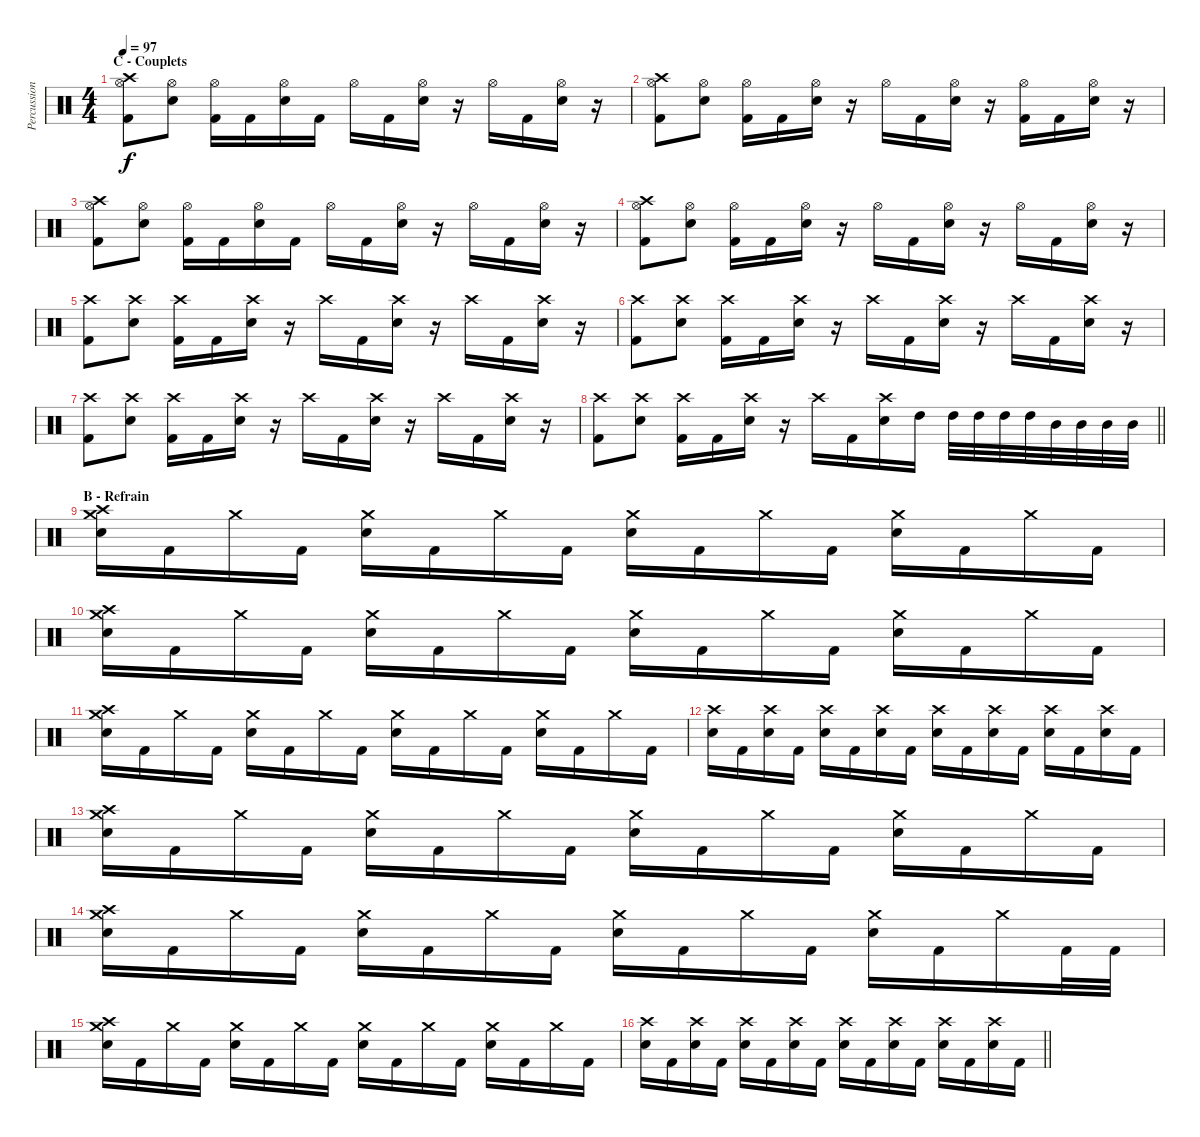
\track ("Percussions" "Percussion") {instrument percussion}
\staff {score}
\articulation defaults
\ts (4 4)
\section ("" "C - Couplets")
\tempo 97
\clef neutral
\ks c
("Crash high (hit)" "Hi-Hat (open)" "Kick (hit) 2").8{dy f} ("Hi-Hat (open)" "Snare (hit) 2").8 ("Hi-Hat (open)" "Kick (hit) 2").16 "Kick (hit) 2".16 ("Hi-Hat (open)" "Snare (hit) 2").16 "Kick (hit) 2".16 "Hi-Hat (open)".16 "Kick (hit) 2".16 ("Hi-Hat (open)" "Snare (hit) 2").16 r.16 "Hi-Hat (open)".16 "Kick (hit) 2".16 ("Hi-Hat (open)" "Snare (hit) 2").16 r.16 |
("Crash high (hit)" "Hi-Hat (open)" "Kick (hit) 2").8 ("Hi-Hat (open)" "Snare (hit) 2").8 ("Hi-Hat (open)" "Kick (hit) 2").16 "Kick (hit) 2".16 ("Hi-Hat (open)" "Snare (hit) 2").16 r.16 "Hi-Hat (open)".16 "Kick (hit) 2".16 ("Hi-Hat (open)" "Snare (hit) 2").16 r.16 ("Hi-Hat (open)" "Kick (hit) 2").16 "Kick (hit) 2".16 ("Hi-Hat (open)" "Snare (hit) 2").16 r.16 |
("Crash high (hit)" "Hi-Hat (open)" "Kick (hit) 2").8 ("Hi-Hat (open)" "Snare (hit) 2").8 ("Hi-Hat (open)" "Kick (hit) 2").16 "Kick (hit) 2".16 ("Hi-Hat (open)" "Snare (hit) 2").16 "Kick (hit) 2".16 "Hi-Hat (open)".16 "Kick (hit) 2".16 ("Hi-Hat (open)" "Snare (hit) 2").16 r.16 "Hi-Hat (open)".16 "Kick (hit) 2".16 ("Hi-Hat (open)" "Snare (hit) 2").16 r.16 |
("Crash high (hit)" "Hi-Hat (open)" "Kick (hit) 2").8 ("Hi-Hat (open)" "Snare (hit) 2").8 ("Hi-Hat (open)" "Kick (hit) 2").16 "Kick (hit) 2".16 ("Hi-Hat (open)" "Snare (hit) 2").16 r.16 "Hi-Hat (open)".16 "Kick (hit) 2".16 ("Hi-Hat (open)" "Snare (hit) 2").16 r.16 "Hi-Hat (open)".16 "Kick (hit) 2".16 ("Hi-Hat (open)" "Snare (hit) 2").16 r.16 |
("Crash high (hit)" "Kick (hit) 2").8 ("Crash high (hit)" "Snare (hit) 2").8 ("Crash high (hit)" "Kick (hit) 2").16 "Kick (hit) 2".16 ("Crash high (hit)" "Snare (hit) 2").16 r.16 "Crash high (hit)".16 "Kick (hit) 2".16 ("Crash high (hit)" "Snare (hit) 2").16 r.16 "Crash high (hit)".16 "Kick (hit) 2".16 ("Crash high (hit)" "Snare (hit) 2").16 r.16 |
("Crash high (hit)" "Kick (hit) 2").8 ("Crash high (hit)" "Snare (hit) 2").8 ("Crash high (hit)" "Kick (hit) 2").16 "Kick (hit) 2".16 ("Crash high (hit)" "Snare (hit) 2").16 r.16 "Crash high (hit)".16 "Kick (hit) 2".16 ("Crash high (hit)" "Snare (hit) 2").16 r.16 "Crash high (hit)".16 "Kick (hit) 2".16 ("Crash high (hit)" "Snare (hit) 2").16 r.16 |
("Crash high (hit)" "Kick (hit) 2").8 ("Crash high (hit)" "Snare (hit) 2").8 ("Crash high (hit)" "Kick (hit) 2").16 "Kick (hit) 2".16 ("Crash high (hit)" "Snare (hit) 2").16 r.16 "Crash high (hit)".16 "Kick (hit) 2".16 ("Crash high (hit)" "Snare (hit) 2").16 r.16 "Crash high (hit)".16 "Kick (hit) 2".16 ("Crash high (hit)" "Snare (hit) 2").16 r.16 |
\barLineRight lightlight
("Crash high (hit)" "Kick (hit) 2").8 ("Crash high (hit)" "Snare (hit) 2").8 ("Crash high (hit)" "Kick (hit) 2").16 "Kick (hit) 2".16 ("Crash high (hit)" "Snare (hit) 2").16 r.16 "Crash high (hit)".16 "Kick (hit) 2".16 ("Crash high (hit)" "Snare (hit) 2").16 "High Tom (hit)".16 "High Tom (hit)".32 "High Tom (hit)".32 "High Tom (hit)".32 "High Tom (hit)".32 "Mid Tom (hit)".32 "Mid Tom (hit)".32 "Mid Tom (hit)".32 "Mid Tom (hit)".32 |
\section ("" "B - Refrain")
("Crash medium (hit)" "Crash high (hit)" "Snare (hit) 2").16 "Kick (hit) 2".16 "Crash medium (hit)".16 "Kick (hit) 2".16 ("Crash medium (hit)" "Snare (hit) 2").16 "Kick (hit) 2".16 "Crash medium (hit)".16 "Kick (hit) 2".16 ("Crash medium (hit)" "Snare (hit) 2").16 "Kick (hit) 2".16 "Crash medium (hit)".16 "Kick (hit) 2".16 ("Crash medium (hit)" "Snare (hit) 2").16 "Kick (hit) 2".16 "Crash medium (hit)".16 "Kick (hit) 2".16 |
("Crash medium (hit)" "Crash high (hit)" "Snare (hit) 2").16 "Kick (hit) 2".16 "Crash medium (hit)".16 "Kick (hit) 2".16 ("Crash medium (hit)" "Snare (hit) 2").16 "Kick (hit) 2".16 "Crash medium (hit)".16 "Kick (hit) 2".16 ("Crash medium (hit)" "Snare (hit) 2").16 "Kick (hit) 2".16 "Crash medium (hit)".16 "Kick (hit) 2".16 ("Crash medium (hit)" "Snare (hit) 2").16 "Kick (hit) 2".16 "Crash medium (hit)".16 "Kick (hit) 2".16 |
("Crash medium (hit)" "Crash high (hit)" "Snare (hit) 2").16 "Kick (hit) 2".16 "Crash medium (hit)".16 "Kick (hit) 2".16 ("Crash medium (hit)" "Snare (hit) 2").16 "Kick (hit) 2".16 "Crash medium (hit)".16 "Kick (hit) 2".16 ("Crash medium (hit)" "Snare (hit) 2").16 "Kick (hit) 2".16 "Crash medium (hit)".16 "Kick (hit) 2".16 ("Crash medium (hit)" "Snare (hit) 2").16 "Kick (hit) 2".16 "Crash medium (hit)".16 "Kick (hit) 2".16 |
("Crash high (hit)" "Snare (hit) 2").16 "Kick (hit) 2".16 ("Crash high (hit)" "Snare (hit) 2").16 "Kick (hit) 2".16 ("Crash high (hit)" "Snare (hit) 2").16 "Kick (hit) 2".16 ("Crash high (hit)" "Snare (hit) 2").16 "Kick (hit) 2".16 ("Crash high (hit)" "Snare (hit) 2").16 "Kick (hit) 2".16 ("Crash high (hit)" "Snare (hit) 2").16 "Kick (hit) 2".16 ("Crash high (hit)" "Snare (hit) 2").16 "Kick (hit) 2".16 ("Crash high (hit)" "Snare (hit) 2").16 "Kick (hit) 2".16 |
("Crash medium (hit)" "Crash high (hit)" "Snare (hit) 2").16 "Kick (hit) 2".16 "Crash medium (hit)".16 "Kick (hit) 2".16 ("Crash medium (hit)" "Snare (hit) 2").16 "Kick (hit) 2".16 "Crash medium (hit)".16 "Kick (hit) 2".16 ("Crash medium (hit)" "Snare (hit) 2").16 "Kick (hit) 2".16 "Crash medium (hit)".16 "Kick (hit) 2".16 ("Crash medium (hit)" "Snare (hit) 2").16 "Kick (hit) 2".16 "Crash medium (hit)".16 "Kick (hit) 2".16 |
("Crash medium (hit)" "Crash high (hit)" "Snare (hit) 2").16 "Kick (hit) 2".16 "Crash medium (hit)".16 "Kick (hit) 2".16 ("Crash medium (hit)" "Snare (hit) 2").16 "Kick (hit) 2".16 "Crash medium (hit)".16 "Kick (hit) 2".16 ("Crash medium (hit)" "Snare (hit) 2").16 "Kick (hit) 2".16 "Crash medium (hit)".16 "Kick (hit) 2".16 ("Crash medium (hit)" "Snare (hit) 2").16 "Kick (hit) 2".16 "Crash medium (hit)".16 "Kick (hit) 2".32 "Kick (hit) 2".32 |
("Crash medium (hit)" "Crash high (hit)" "Snare (hit) 2").16 "Kick (hit) 2".16 "Crash medium (hit)".16 "Kick (hit) 2".16 ("Crash medium (hit)" "Snare (hit) 2").16 "Kick (hit) 2".16 "Crash medium (hit)".16 "Kick (hit) 2".16 ("Crash medium (hit)" "Snare (hit) 2").16 "Kick (hit) 2".16 "Crash medium (hit)".16 "Kick (hit) 2".16 ("Crash medium (hit)" "Snare (hit) 2").16 "Kick (hit) 2".16 "Crash medium (hit)".16 "Kick (hit) 2".16 |
\barLineRight lightlight
("Crash high (hit)" "Snare (hit) 2").16 "Kick (hit) 2".16 ("Crash high (hit)" "Snare (hit) 2").16 "Kick (hit) 2".16 ("Crash high (hit)" "Snare (hit) 2").16 "Kick (hit) 2".16 ("Crash high (hit)" "Snare (hit) 2").16 "Kick (hit) 2".16 ("Crash high (hit)" "Snare (hit) 2").16 "Kick (hit) 2".16 ("Crash high (hit)" "Snare (hit) 2").16 "Kick (hit) 2".16 ("Crash high (hit)" "Snare (hit) 2").16 "Kick (hit) 2".16 ("Crash high (hit)" "Snare (hit) 2").16 "Kick (hit) 2".16
